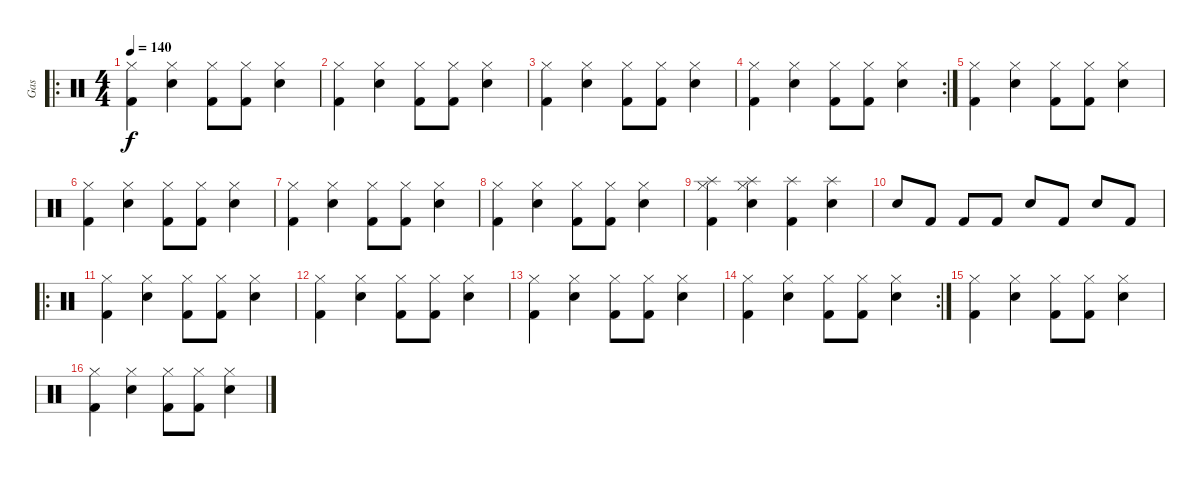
\track ("Gas" "Gas") {instrument percussion}
\staff {score}
\articulation defaults
\ro
\ts (4 4)
\tempo 140
\clef neutral
\ks c
("Hi-Hat (closed)" "Kick (hit) 2").4{dy f} ("Hi-Hat (closed)" "Electric Snare (hit)").4 ("Hi-Hat (closed)" "Kick (hit) 2").8 ("Hi-Hat (closed)" "Kick (hit) 2").8 ("Hi-Hat (closed)" "Electric Snare (hit)").4 |
("Hi-Hat (closed)" "Kick (hit) 2").4 ("Hi-Hat (closed)" "Electric Snare (hit)").4 ("Hi-Hat (closed)" "Kick (hit) 2").8 ("Hi-Hat (closed)" "Kick (hit) 2").8 ("Hi-Hat (closed)" "Electric Snare (hit)").4 |
("Hi-Hat (closed)" "Kick (hit) 2").4 ("Hi-Hat (closed)" "Electric Snare (hit)").4 ("Hi-Hat (closed)" "Kick (hit) 2").8 ("Hi-Hat (closed)" "Kick (hit) 2").8 ("Hi-Hat (closed)" "Electric Snare (hit)").4 |
\rc 2
("Hi-Hat (closed)" "Kick (hit) 2").4 ("Hi-Hat (closed)" "Electric Snare (hit)").4 ("Hi-Hat (closed)" "Kick (hit) 2").8 ("Hi-Hat (closed)" "Kick (hit) 2").8 ("Hi-Hat (closed)" "Electric Snare (hit)").4 |
("Hi-Hat (closed)" "Kick (hit) 2").4 ("Hi-Hat (closed)" "Electric Snare (hit)").4 ("Hi-Hat (closed)" "Kick (hit) 2").8 ("Hi-Hat (closed)" "Kick (hit) 2").8 ("Hi-Hat (closed)" "Electric Snare (hit)").4 |
("Hi-Hat (closed)" "Kick (hit) 2").4 ("Hi-Hat (closed)" "Electric Snare (hit)").4 ("Hi-Hat (closed)" "Kick (hit) 2").8 ("Hi-Hat (closed)" "Kick (hit) 2").8 ("Hi-Hat (closed)" "Electric Snare (hit)").4 |
("Hi-Hat (closed)" "Kick (hit) 2").4 ("Hi-Hat (closed)" "Electric Snare (hit)").4 ("Hi-Hat (closed)" "Kick (hit) 2").8 ("Hi-Hat (closed)" "Kick (hit) 2").8 ("Hi-Hat (closed)" "Electric Snare (hit)").4 |
("Hi-Hat (closed)" "Kick (hit) 2").4 ("Hi-Hat (closed)" "Electric Snare (hit)").4 ("Hi-Hat (closed)" "Kick (hit) 2").8 ("Hi-Hat (closed)" "Kick (hit) 2").8 ("Hi-Hat (closed)" "Electric Snare (hit)").4 |
("Splash (hit)" "Hi-Hat (closed)" "Kick (hit) 2").4 ("Splash (hit)" "Hi-Hat (closed)" "Electric Snare (hit)").4 ("Splash (hit)" "Kick (hit) 2").4 ("Splash (hit)" "Electric Snare (hit)").4 |
"Electric Snare (hit)".8 "Kick (hit) 2".8 "Kick (hit) 2".8 "Kick (hit) 2".8 "Electric Snare (hit)".8 "Kick (hit) 2".8 "Electric Snare (hit)".8 "Kick (hit) 2".8 |
\ro
("Hi-Hat (closed)" "Kick (hit) 2").4 ("Hi-Hat (closed)" "Electric Snare (hit)").4 ("Hi-Hat (closed)" "Kick (hit) 2").8 ("Hi-Hat (closed)" "Kick (hit) 2").8 ("Hi-Hat (closed)" "Electric Snare (hit)").4 |
("Hi-Hat (closed)" "Kick (hit) 2").4 ("Hi-Hat (closed)" "Electric Snare (hit)").4 ("Hi-Hat (closed)" "Kick (hit) 2").8 ("Hi-Hat (closed)" "Kick (hit) 2").8 ("Hi-Hat (closed)" "Electric Snare (hit)").4 |
("Hi-Hat (closed)" "Kick (hit) 2").4 ("Hi-Hat (closed)" "Electric Snare (hit)").4 ("Hi-Hat (closed)" "Kick (hit) 2").8 ("Hi-Hat (closed)" "Kick (hit) 2").8 ("Hi-Hat (closed)" "Electric Snare (hit)").4 |
\rc 2
("Hi-Hat (closed)" "Kick (hit) 2").4 ("Hi-Hat (closed)" "Electric Snare (hit)").4 ("Hi-Hat (closed)" "Kick (hit) 2").8 ("Hi-Hat (closed)" "Kick (hit) 2").8 ("Hi-Hat (closed)" "Electric Snare (hit)").4 |
("Hi-Hat (closed)" "Kick (hit) 2").4 ("Hi-Hat (closed)" "Electric Snare (hit)").4 ("Hi-Hat (closed)" "Kick (hit) 2").8 ("Hi-Hat (closed)" "Kick (hit) 2").8 ("Hi-Hat (closed)" "Electric Snare (hit)").4 |
("Hi-Hat (closed)" "Kick (hit) 2").4 ("Hi-Hat (closed)" "Electric Snare (hit)").4 ("Hi-Hat (closed)" "Kick (hit) 2").8 ("Hi-Hat (closed)" "Kick (hit) 2").8 ("Hi-Hat (closed)" "Electric Snare (hit)").4
